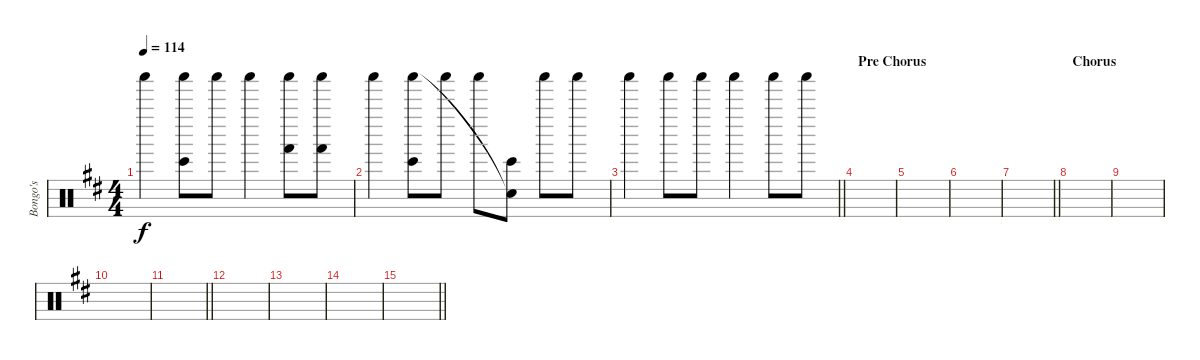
\track ("Bongo's" "Bongo's") {instrument percussion}
\staff {score}
\articulation defaults
\ts (4 4)
\tempo 114
\clef neutral
\ks bminor "Shaker (hit)".4{dy f}
("Bongo High (hit)" "Shaker (hit)").8 "Shaker (hit)".8 "Shaker (hit)".4 ("Hand (hit)" "Shaker (hit)").8 ("Hand (hit)" "Shaker (hit)").8 |
"Shaker (hit)".4 ("Bongo High (hit)" "Shaker (hit)").8 "Shaker (hit)".8 "Shaker (hit)".8 ("Bongo High (hit)" "Snare (hit)"{t}).8 "Shaker (hit)".8 "Shaker (hit)".8 |
\barLineRight lightlight "Shaker (hit)".4 "Shaker (hit)".8 "Shaker (hit)".8 "Shaker (hit)".4 "Shaker (hit)".8 "Shaker (hit)".8
|
\section ("" "Pre Chorus")
|
|
|
\barLineRight lightlight
|
\section ("" "Chorus")
|
|
|
\barLineRight lightlight
|
|
|
|
\barLineRight lightlight
